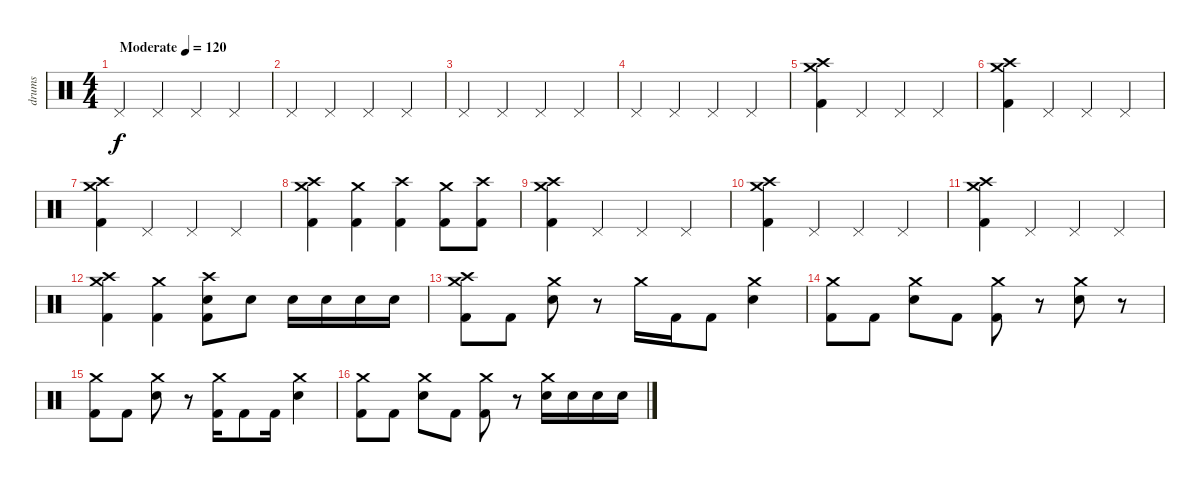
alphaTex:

\track ("drums" "drums") {instrument percussion}
\staff {score}
\articulation defaults
\ts (4 4)
\tempo (120 "Moderate")
\clef neutral
\ks c "Pedal Hi-Hat (hit)".4{dy f} "Pedal Hi-Hat (hit)".4 "Pedal Hi-Hat (hit)".4 "Pedal Hi-Hat (hit)".4
|
"Pedal Hi-Hat (hit)".4 "Pedal Hi-Hat (hit)".4 "Pedal Hi-Hat (hit)".4 "Pedal Hi-Hat (hit)".4 |
"Pedal Hi-Hat (hit)".4 "Pedal Hi-Hat (hit)".4 "Pedal Hi-Hat (hit)".4 "Pedal Hi-Hat (hit)".4 |
"Pedal Hi-Hat (hit)".4 "Pedal Hi-Hat (hit)".4 "Pedal Hi-Hat (hit)".4 "Pedal Hi-Hat (hit)".4 |
("Crash medium (hit)" "Crash high (hit)" "Kick (hit) 2").4 "Pedal Hi-Hat (hit)".4 "Pedal Hi-Hat (hit)".4 "Pedal Hi-Hat (hit)".4 |
("Crash medium (hit)" "Crash high (hit)" "Kick (hit) 2").4 "Pedal Hi-Hat (hit)".4 "Pedal Hi-Hat (hit)".4 "Pedal Hi-Hat (hit)".4 |
("Crash medium (hit)" "Crash high (hit)" "Kick (hit) 2").4 "Pedal Hi-Hat (hit)".4 "Pedal Hi-Hat (hit)".4 "Pedal Hi-Hat (hit)".4 |
("Crash medium (hit)" "Crash high (hit)" "Kick (hit) 2").4 ("Crash medium (hit)" "Kick (hit) 2").4 ("Crash high (hit)" "Kick (hit) 2").4 ("Crash medium (hit)" "Kick (hit) 2").8 ("Crash high (hit)" "Kick (hit) 2").8 |
("Crash medium (hit)" "Crash high (hit)" "Kick (hit) 2").4 "Pedal Hi-Hat (hit)".4 "Pedal Hi-Hat (hit)".4 "Pedal Hi-Hat (hit)".4 |
("Crash medium (hit)" "Crash high (hit)" "Kick (hit) 2").4 "Pedal Hi-Hat (hit)".4 "Pedal Hi-Hat (hit)".4 "Pedal Hi-Hat (hit)".4 |
("Crash medium (hit)" "Crash high (hit)" "Kick (hit) 2").4 "Pedal Hi-Hat (hit)".4 "Pedal Hi-Hat (hit)".4 "Pedal Hi-Hat (hit)".4 |
("Crash medium (hit)" "Crash high (hit)" "Kick (hit) 2").4 ("Crash medium (hit)" "Kick (hit) 2").4 ("Crash high (hit)" "Electric Snare (hit)" "Kick (hit) 2").8 "Electric Snare (hit)".8 "Electric Snare (hit)".16 "Electric Snare (hit)".16 "Electric Snare (hit)".16 "Electric Snare (hit)".16 |
("Crash medium (hit)" "Crash high (hit)" "Kick (hit) 2").8 "Kick (hit) 2".8 ("Crash medium (hit)" "Electric Snare (hit)").8 r.8 "Crash medium (hit)".16 "Kick (hit) 2".16 "Kick (hit) 2".8 ("Crash medium (hit)" "Electric Snare (hit)").4 |
("Crash medium (hit)" "Kick (hit) 2").8 "Kick (hit) 2".8 ("Crash medium (hit)" "Electric Snare (hit)").8 "Kick (hit) 2".8 ("Crash medium (hit)" "Kick (hit) 2").8 r.8 ("Crash medium (hit)" "Electric Snare (hit)").8 r.8 |
("Crash medium (hit)" "Kick (hit) 2").8 "Kick (hit) 2".8 ("Crash medium (hit)" "Electric Snare (hit)").8 r.8 ("Crash medium (hit)" "Kick (hit) 2").16 "Kick (hit) 2".8 "Kick (hit) 2".16 ("Crash medium (hit)" "Electric Snare (hit)").4 |
("Crash medium (hit)" "Kick (hit) 2").8 "Kick (hit) 2".8 ("Crash medium (hit)" "Electric Snare (hit)").8 "Kick (hit) 2".8 ("Crash medium (hit)" "Kick (hit) 2").8 r.8 ("Crash medium (hit)" "Electric Snare (hit)").16 "Electric Snare (hit)".16 "Electric Snare (hit)".16 "Electric Snare (hit)".16
